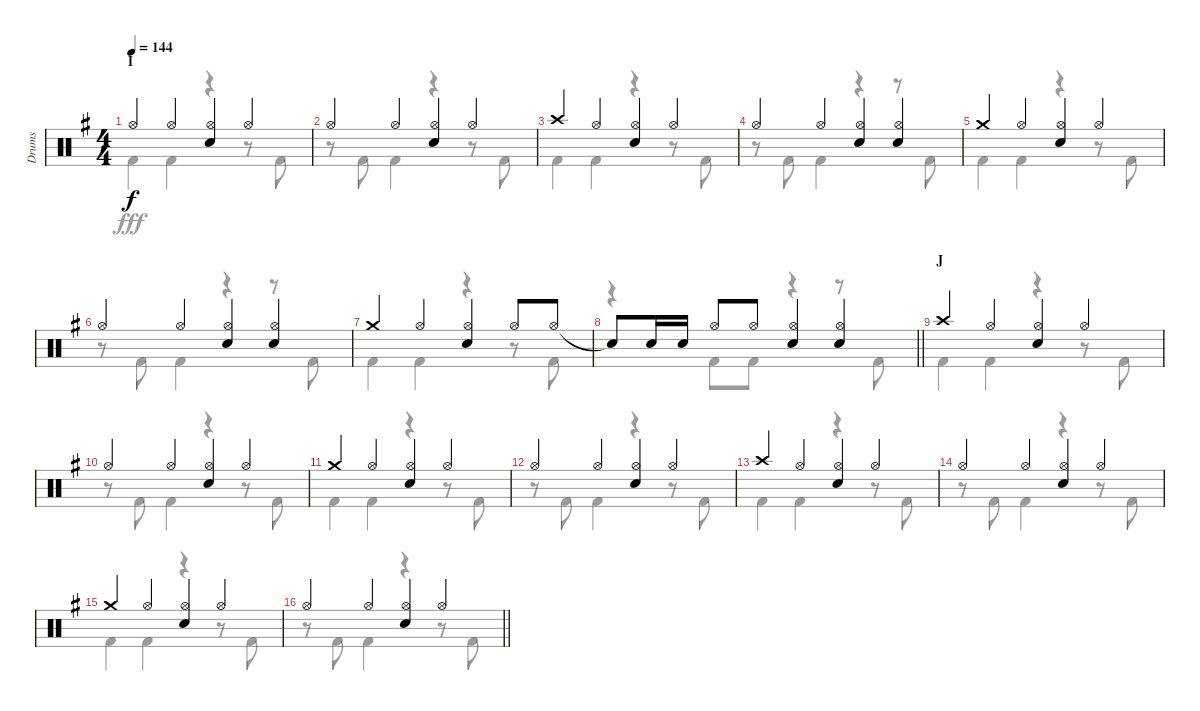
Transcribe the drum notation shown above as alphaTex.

\track ("Drums" "Drums") {instrument percussion}
\staff {score}
\articulation defaults
\voice
\ts (4 4)
\section ("" "I")
\tempo 144
\clef neutral
\ks g "Hi-Hat (open)".4{dy f} "Hi-Hat (open)".4
("Hi-Hat (open)" "Snare (hit) 2").4 "Hi-Hat (open)".4 |
"Hi-Hat (open)".4 "Hi-Hat (open)".4 ("Hi-Hat (open)" "Snare (hit) 2").4 "Hi-Hat (open)".4 |
"Crash high (hit)".4 "Hi-Hat (open)".4 ("Hi-Hat (open)" "Snare (hit) 2").4 "Hi-Hat (open)".4 |
"Hi-Hat (open)".4 "Hi-Hat (open)".4 ("Hi-Hat (open)" "Snare (hit) 2").4 ("Hi-Hat (open)" "Snare (hit) 2").4 |
"Crash medium (hit)".4 "Hi-Hat (open)".4 ("Hi-Hat (open)" "Snare (hit) 2").4 "Hi-Hat (open)".4 |
"Hi-Hat (open)".4 "Hi-Hat (open)".4 ("Hi-Hat (open)" "Snare (hit) 2").4 ("Hi-Hat (open)" "Snare (hit) 2").4 |
"Crash medium (hit)".4 "Hi-Hat (open)".4 ("Hi-Hat (open)" "Snare (hit) 2").4 "Hi-Hat (open)".8 "Hi-Hat (open)".8 |
\barLineRight lightlight "Snare (hit)"{t}.8 "Snare (hit) 2".16 "Snare (hit) 2".16 "Hi-Hat (open)".8 "Hi-Hat (open)".8
("Hi-Hat (open)" "Snare (hit) 2").4 ("Hi-Hat (open)" "Snare (hit) 2").4 |
\section ("" "J")
"Crash high (hit)".4 "Hi-Hat (open)".4 ("Hi-Hat (open)" "Snare (hit) 2").4 "Hi-Hat (open)".4 |
"Hi-Hat (open)".4 "Hi-Hat (open)".4 ("Hi-Hat (open)" "Snare (hit) 2").4 "Hi-Hat (open)".4 |
"Crash medium (hit)".4 "Hi-Hat (open)".4 ("Hi-Hat (open)" "Snare (hit) 2").4 "Hi-Hat (open)".4 |
"Hi-Hat (open)".4 "Hi-Hat (open)".4 ("Hi-Hat (open)" "Snare (hit) 2").4 "Hi-Hat (open)".4 |
"Crash high (hit)".4 "Hi-Hat (open)".4 ("Hi-Hat (open)" "Snare (hit) 2").4 "Hi-Hat (open)".4 |
"Hi-Hat (open)".4 "Hi-Hat (open)".4 ("Hi-Hat (open)" "Snare (hit) 2").4 "Hi-Hat (open)".4 |
"Crash medium (hit)".4 "Hi-Hat (open)".4 ("Hi-Hat (open)" "Snare (hit) 2").4 "Hi-Hat (open)".4 |
\barLineRight lightlight "Hi-Hat (open)".4 "Hi-Hat (open)".4
("Hi-Hat (open)" "Snare (hit) 2").4 "Hi-Hat (open)".4
\voice
\clef neutral
\ottava regular
\simile none
\ks g "Kick (hit) 2".4{dy fff} "Kick (hit) 2".4
r.4 r.8 "Kick (hit) 2".8 |
r.8 "Kick (hit) 2".8 "Kick (hit) 2".4 r.4 r.8 "Kick (hit) 2".8 |
"Kick (hit) 2".4 "Kick (hit) 2".4 r.4 r.8 "Kick (hit) 2".8 |
r.8 "Kick (hit) 2".8 "Kick (hit) 2".4 r.4 r.8 "Kick (hit) 2".8 |
"Kick (hit) 2".4 "Kick (hit) 2".4 r.4 r.8 "Kick (hit) 2".8 |
r.8 "Kick (hit) 2".8 "Kick (hit) 2".4 r.4 r.8 "Kick (hit) 2".8 |
"Kick (hit) 2".4 "Kick (hit) 2".4 r.4 r.8 "Kick (hit) 2".8 |
\barLineRight lightlight
r.4 "Kick (hit) 2".8 "Kick (hit) 2".8 r.4 r.8 "Kick (hit) 2".8 |
"Kick (hit) 2".4 "Kick (hit) 2".4 r.4 r.8 "Kick (hit) 2".8 |
r.8 "Kick (hit) 2".8 "Kick (hit) 2".4 r.4 r.8 "Kick (hit) 2".8 |
"Kick (hit) 2".4 "Kick (hit) 2".4 r.4 r.8 "Kick (hit) 2".8 |
r.8 "Kick (hit) 2".8 "Kick (hit) 2".4 r.4 r.8 "Kick (hit) 2".8 |
"Kick (hit) 2".4 "Kick (hit) 2".4 r.4 r.8 "Kick (hit) 2".8 |
r.8 "Kick (hit) 2".8 "Kick (hit) 2".4 r.4 r.8 "Kick (hit) 2".8 |
"Kick (hit) 2".4 "Kick (hit) 2".4 r.4 r.8 "Kick (hit) 2".8 |
\barLineRight lightlight
r.8 "Kick (hit) 2".8 "Kick (hit) 2".4 r.4 r.8 "Kick (hit) 2".8
